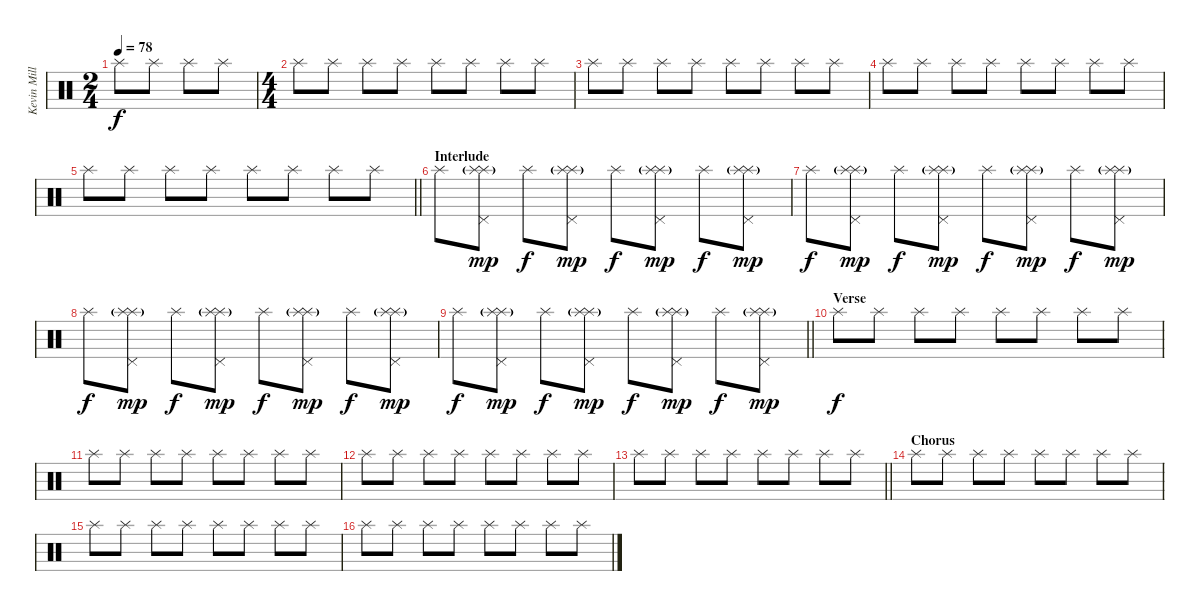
\track ("Kevin Miller (Drums)" "Kevin Mill") {instrument percussion}
\staff {score}
\articulation defaults
\ts (2 4)
\tempo 78
\clef neutral
\ks c "Splash (hit)".8{dy f} "Splash (hit)".8 "Splash (hit)".8 "Splash (hit)".8
|
\ts (4 4)
"Splash (hit)".8 "Splash (hit)".8 "Splash (hit)".8 "Splash (hit)".8 "Splash (hit)".8 "Splash (hit)".8 "Splash (hit)".8 "Splash (hit)".8 |
"Splash (hit)".8 "Splash (hit)".8 "Splash (hit)".8 "Splash (hit)".8 "Splash (hit)".8 "Splash (hit)".8 "Splash (hit)".8 "Splash (hit)".8 |
"Splash (hit)".8 "Splash (hit)".8 "Splash (hit)".8 "Splash (hit)".8 "Splash (hit)".8 "Splash (hit)".8 "Splash (hit)".8 "Splash (hit)".8 |
\barLineRight lightlight "Splash (hit)".8 "Splash (hit)".8 "Splash (hit)".8 "Splash (hit)".8 "Splash (hit)".8 "Splash (hit)".8 "Splash (hit)".8 "Splash (hit)".8
|
\section ("" "Interlude")
"Splash (hit)".8 ("Splash (hit)"{g} "Pedal Hi-Hat (hit)" "Splash (hit)"{g}).8{dy mp} "Splash (hit)".8{dy f} ("Splash (hit)"{g} "Pedal Hi-Hat (hit)" "Splash (hit)"{g}).8{dy mp} "Splash (hit)".8{dy f} ("Splash (hit)"{g} "Pedal Hi-Hat (hit)" "Splash (hit)"{g}).8{dy mp} "Splash (hit)".8{dy f} ("Splash (hit)"{g} "Pedal Hi-Hat (hit)" "Splash (hit)"{g}).8{dy mp} |
"Splash (hit)".8{dy f} ("Splash (hit)"{g} "Pedal Hi-Hat (hit)" "Splash (hit)"{g}).8{dy mp} "Splash (hit)".8{dy f} ("Splash (hit)"{g} "Pedal Hi-Hat (hit)" "Splash (hit)"{g}).8{dy mp} "Splash (hit)".8{dy f} ("Splash (hit)"{g} "Pedal Hi-Hat (hit)" "Splash (hit)"{g}).8{dy mp} "Splash (hit)".8{dy f} ("Splash (hit)"{g} "Pedal Hi-Hat (hit)" "Splash (hit)"{g}).8{dy mp} |
"Splash (hit)".8{dy f} ("Splash (hit)"{g} "Pedal Hi-Hat (hit)" "Splash (hit)"{g}).8{dy mp} "Splash (hit)".8{dy f} ("Splash (hit)"{g} "Pedal Hi-Hat (hit)" "Splash (hit)"{g}).8{dy mp} "Splash (hit)".8{dy f} ("Splash (hit)"{g} "Pedal Hi-Hat (hit)" "Splash (hit)"{g}).8{dy mp} "Splash (hit)".8{dy f} ("Splash (hit)"{g} "Pedal Hi-Hat (hit)" "Splash (hit)"{g}).8{dy mp} |
\barLineRight lightlight "Splash (hit)".8{dy f}
("Splash (hit)"{g} "Pedal Hi-Hat (hit)" "Splash (hit)"{g}).8{dy mp} "Splash (hit)".8{dy f} ("Splash (hit)"{g} "Pedal Hi-Hat (hit)" "Splash (hit)"{g}).8{dy mp} "Splash (hit)".8{dy f} ("Splash (hit)"{g} "Pedal Hi-Hat (hit)" "Splash (hit)"{g}).8{dy mp} "Splash (hit)".8{dy f} ("Splash (hit)"{g} "Pedal Hi-Hat (hit)" "Splash (hit)"{g}).8{dy mp} |
\section ("" "Verse")
"Splash (hit)".8{dy f} "Splash (hit)".8 "Splash (hit)".8 "Splash (hit)".8 "Splash (hit)".8 "Splash (hit)".8 "Splash (hit)".8 "Splash (hit)".8 |
"Splash (hit)".8 "Splash (hit)".8 "Splash (hit)".8 "Splash (hit)".8 "Splash (hit)".8 "Splash (hit)".8 "Splash (hit)".8 "Splash (hit)".8 |
"Splash (hit)".8 "Splash (hit)".8 "Splash (hit)".8 "Splash (hit)".8 "Splash (hit)".8 "Splash (hit)".8 "Splash (hit)".8 "Splash (hit)".8 |
\barLineRight lightlight "Splash (hit)".8 "Splash (hit)".8 "Splash (hit)".8 "Splash (hit)".8 "Splash (hit)".8 "Splash (hit)".8 "Splash (hit)".8 "Splash (hit)".8
|
\section ("" "Chorus")
"Splash (hit)".8 "Splash (hit)".8 "Splash (hit)".8 "Splash (hit)".8 "Splash (hit)".8 "Splash (hit)".8 "Splash (hit)".8 "Splash (hit)".8 |
"Splash (hit)".8 "Splash (hit)".8 "Splash (hit)".8 "Splash (hit)".8 "Splash (hit)".8 "Splash (hit)".8 "Splash (hit)".8 "Splash (hit)".8 |
"Splash (hit)".8 "Splash (hit)".8 "Splash (hit)".8 "Splash (hit)".8 "Splash (hit)".8 "Splash (hit)".8 "Splash (hit)".8 "Splash (hit)".8
